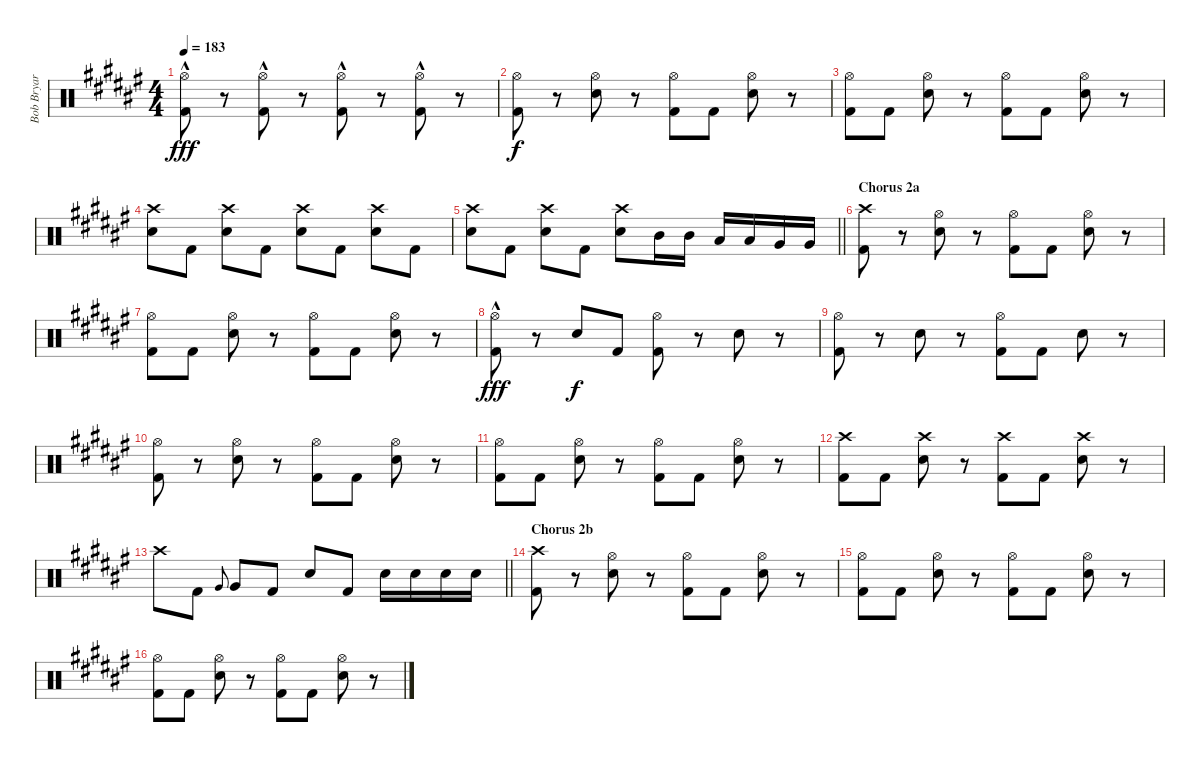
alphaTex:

\track ("Bob Bryar" "Bob Bryar") {instrument percussion}
\staff {score}
\articulation defaults
\ts (4 4)
\tempo 183
\clef neutral
\ks d#minor
("Hi-Hat (open)" "Kick (hit) 2"{hac}).8{dy fff} r.8 ("Hi-Hat (open)" "Kick (hit) 2"{hac}).8 r.8 ("Hi-Hat (open)" "Kick (hit) 2"{hac}).8 r.8 ("Hi-Hat (open)" "Kick (hit) 2"{hac}).8 r.8 |
("Hi-Hat (open)" "Kick (hit) 2").8{dy f} r.8 ("Hi-Hat (open)" "Electric Snare (hit)").8 r.8 ("Hi-Hat (open)" "Kick (hit) 2").8 "Kick (hit) 2".8 ("Hi-Hat (open)" "Electric Snare (hit)").8 r.8 |
("Hi-Hat (open)" "Kick (hit) 2").8 "Kick (hit) 2".8 ("Hi-Hat (open)" "Electric Snare (hit)").8 r.8 ("Hi-Hat (open)" "Kick (hit) 2").8 "Kick (hit) 2".8 ("Hi-Hat (open)" "Electric Snare (hit)").8 r.8 |
("Crash high (hit)" "Electric Snare (hit)").8 "Kick (hit) 2".8 ("Crash high (hit)" "Electric Snare (hit)").8 "Kick (hit) 2".8 ("Crash high (hit)" "Electric Snare (hit)").8 "Kick (hit) 2".8 ("Crash high (hit)" "Electric Snare (hit)").8 "Kick (hit) 2".8 |
\barLineRight lightlight
("Crash high (hit)" "Electric Snare (hit)").8 "Kick (hit) 2".8 ("Crash high (hit)" "Electric Snare (hit)").8 "Kick (hit) 2".8 ("Crash high (hit)" "Electric Snare (hit)").8 "Mid Tom (hit)".16 "Mid Tom (hit)".16 "Low Tom (hit)".16 "Low Tom (hit)".16 "Very Low Tom (hit)".16 "Very Low Tom (hit)".16 |
\section ("" "Chorus 2a")
("Crash high (hit)" "Kick (hit) 2").8 r.8 ("Hi-Hat (open)" "Electric Snare (hit)").8 r.8 ("Hi-Hat (open)" "Kick (hit) 2").8 "Kick (hit) 2".8 ("Hi-Hat (open)" "Electric Snare (hit)").8 r.8 |
("Hi-Hat (open)" "Kick (hit) 2").8 "Kick (hit) 2".8 ("Hi-Hat (open)" "Electric Snare (hit)").8 r.8 ("Hi-Hat (open)" "Kick (hit) 2").8 "Kick (hit) 2".8 ("Hi-Hat (open)" "Electric Snare (hit)").8 r.8 |
("Hi-Hat (open)" "Kick (hit) 2"{hac}).8{dy fff} r.8 "Electric Snare (hit)".8{dy f} "Kick (hit) 2".8 ("Hi-Hat (open)" "Kick (hit) 2").8 r.8 "Electric Snare (hit)".8 r.8 |
("Hi-Hat (open)" "Kick (hit) 2").8 r.8 "Electric Snare (hit)".8 r.8 ("Hi-Hat (open)" "Kick (hit) 2").8 "Kick (hit) 2".8 "Electric Snare (hit)".8 r.8 |
("Hi-Hat (open)" "Kick (hit) 2").8 r.8 ("Hi-Hat (open)" "Electric Snare (hit)").8 r.8 ("Hi-Hat (open)" "Kick (hit) 2").8 "Kick (hit) 2".8 ("Hi-Hat (open)" "Electric Snare (hit)").8 r.8 |
("Hi-Hat (open)" "Kick (hit) 2").8 "Kick (hit) 2".8 ("Hi-Hat (open)" "Electric Snare (hit)").8 r.8 ("Hi-Hat (open)" "Kick (hit) 2").8 "Kick (hit) 2".8 ("Hi-Hat (open)" "Electric Snare (hit)").8 r.8 |
("Crash high (hit)" "Kick (hit) 2").8 "Kick (hit) 2".8 ("Crash high (hit)" "Electric Snare (hit)").8 r.8 ("Crash high (hit)" "Kick (hit) 2").8 "Kick (hit) 2".8 ("Crash high (hit)" "Electric Snare (hit)").8 r.8 |
\barLineRight lightlight "Crash high (hit)".8 "Kick (hit) 2".8 "Very Low Tom (hit)".8{gr onbeat} "Very Low Tom (hit)".8 "Kick (hit) 2".8 "Electric Snare (hit)".8 "Kick (hit) 2".8 "Electric Snare (hit)".16 "Electric Snare (hit)".16 "Electric Snare (hit)".16 "Electric Snare (hit)".16
|
\section ("" "Chorus 2b")
("Crash high (hit)" "Kick (hit) 2").8 r.8 ("Hi-Hat (open)" "Electric Snare (hit)").8 r.8 ("Hi-Hat (open)" "Kick (hit) 2").8 "Kick (hit) 2".8 ("Hi-Hat (open)" "Electric Snare (hit)").8 r.8 |
("Hi-Hat (open)" "Kick (hit) 2").8 "Kick (hit) 2".8 ("Hi-Hat (open)" "Electric Snare (hit)").8 r.8 ("Hi-Hat (open)" "Kick (hit) 2").8 "Kick (hit) 2".8 ("Hi-Hat (open)" "Electric Snare (hit)").8 r.8 |
("Hi-Hat (open)" "Kick (hit) 2").8 "Kick (hit) 2".8 ("Hi-Hat (open)" "Electric Snare (hit)").8 r.8 ("Hi-Hat (open)" "Kick (hit) 2").8 "Kick (hit) 2".8 ("Hi-Hat (open)" "Electric Snare (hit)").8 r.8
